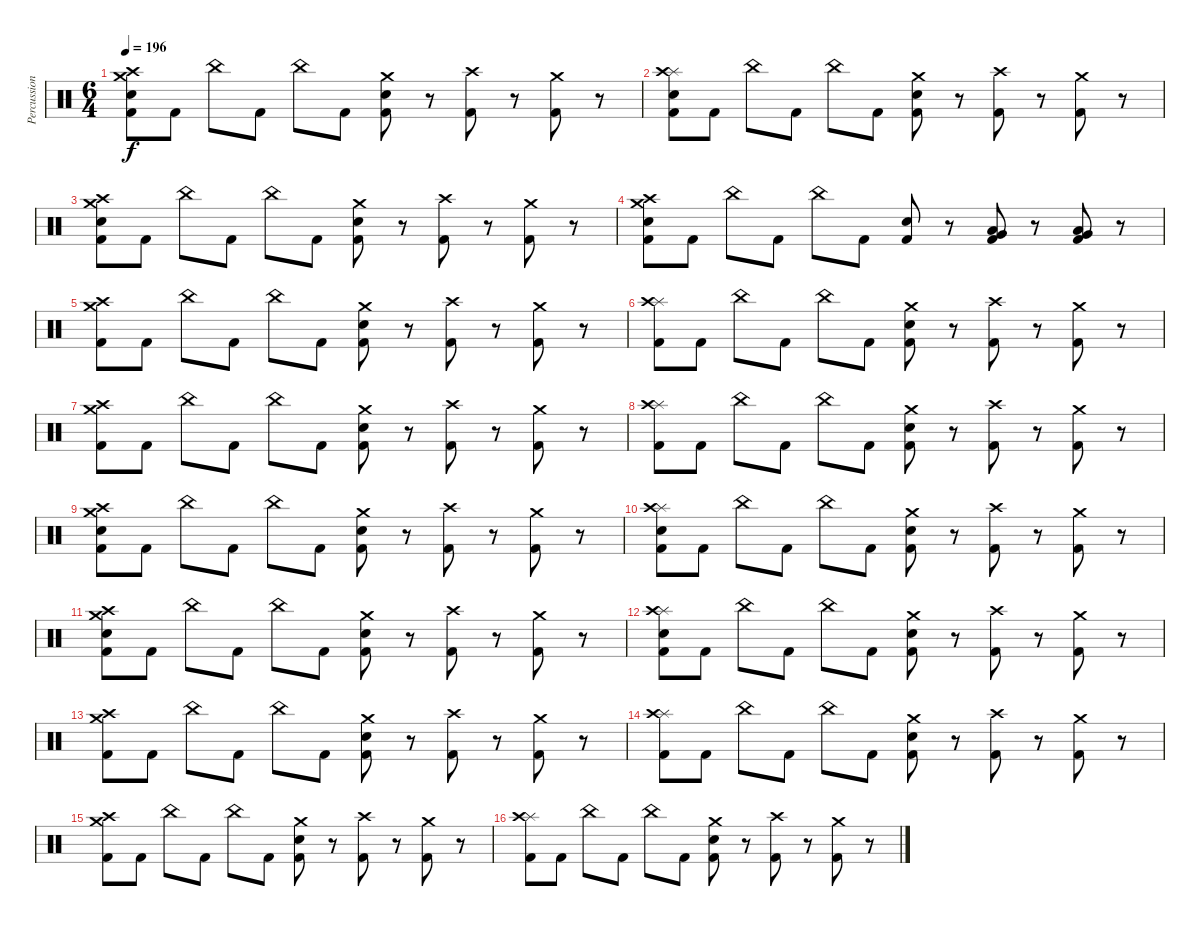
\track ("Percussion" "Percussion") {instrument percussion}
\staff {score}
\articulation defaults
\ts (6 4)
\tempo 196
\clef neutral
\ks c
("Crash medium (hit)" "Crash high (hit)" "Electric Snare (hit)" "Kick (hit) 2").8{dy f} "Kick (hit) 2".8 "China (hit)".8 "Kick (hit) 2".8 "China (hit)".8 "Kick (hit) 2".8 ("Crash medium (hit)" "Electric Snare (hit)" "Kick (hit) 2").8 r.8 ("Crash high (hit)" "Kick (hit) 2").8 r.8 ("Crash medium (hit)" "Kick (hit) 2").8 r.8 |
("Splash (hit)" "Crash high (hit)" "Electric Snare (hit)" "Kick (hit) 2").8 "Kick (hit) 2".8 "China (hit)".8 "Kick (hit) 2".8 "China (hit)".8 "Kick (hit) 2".8 ("Crash medium (hit)" "Electric Snare (hit)" "Kick (hit) 2").8 r.8 ("Crash high (hit)" "Kick (hit) 2").8 r.8 ("Crash medium (hit)" "Kick (hit) 2").8 r.8 |
("Crash medium (hit)" "Crash high (hit)" "Electric Snare (hit)" "Kick (hit) 2").8 "Kick (hit) 2".8 "China (hit)".8 "Kick (hit) 2".8 "China (hit)".8 "Kick (hit) 2".8 ("Crash medium (hit)" "Electric Snare (hit)" "Kick (hit) 2").8 r.8 ("Crash high (hit)" "Kick (hit) 2").8 r.8 ("Crash medium (hit)" "Kick (hit) 2").8 r.8 |
("Crash medium (hit)" "Crash high (hit)" "Electric Snare (hit)" "Kick (hit) 2").8 "Kick (hit) 2".8 "China (hit)".8 "Kick (hit) 2".8 "China (hit)".8 "Kick (hit) 2".8 ("Electric Snare (hit)" "Kick (hit) 2").8 r.8 ("Very Low Tom (hit)" "Low Floor Tom (hit)" "Kick (hit) 2").8 r.8 ("Very Low Tom (hit)" "Low Floor Tom (hit)" "Kick (hit) 2").8 r.8 |
("Crash medium (hit)" "Crash high (hit)" "Kick (hit) 2").8 "Kick (hit) 2".8 "China (hit)".8 "Kick (hit) 2".8 "China (hit)".8 "Kick (hit) 2".8 ("Crash medium (hit)" "Electric Snare (hit)" "Kick (hit) 2").8 r.8 ("Crash high (hit)" "Kick (hit) 2").8 r.8 ("Crash medium (hit)" "Kick (hit) 2").8 r.8 |
("Splash (hit)" "Crash high (hit)" "Kick (hit) 2").8 "Kick (hit) 2".8 "China (hit)".8 "Kick (hit) 2".8 "China (hit)".8 "Kick (hit) 2".8 ("Crash medium (hit)" "Electric Snare (hit)" "Kick (hit) 2").8 r.8 ("Crash high (hit)" "Kick (hit) 2").8 r.8 ("Crash medium (hit)" "Kick (hit) 2").8 r.8 |
("Crash medium (hit)" "Crash high (hit)" "Kick (hit) 2").8 "Kick (hit) 2".8 "China (hit)".8 "Kick (hit) 2".8 "China (hit)".8 "Kick (hit) 2".8 ("Crash medium (hit)" "Electric Snare (hit)" "Kick (hit) 2").8 r.8 ("Crash high (hit)" "Kick (hit) 2").8 r.8 ("Crash medium (hit)" "Kick (hit) 2").8 r.8 |
("Splash (hit)" "Crash high (hit)" "Kick (hit) 2").8 "Kick (hit) 2".8 "China (hit)".8 "Kick (hit) 2".8 "China (hit)".8 "Kick (hit) 2".8 ("Crash medium (hit)" "Electric Snare (hit)" "Kick (hit) 2").8 r.8 ("Crash high (hit)" "Kick (hit) 2").8 r.8 ("Crash medium (hit)" "Kick (hit) 2").8 r.8 |
("Crash medium (hit)" "Crash high (hit)" "Electric Snare (hit)" "Kick (hit) 2").8 "Kick (hit) 2".8 "China (hit)".8 "Kick (hit) 2".8 "China (hit)".8 "Kick (hit) 2".8 ("Crash medium (hit)" "Electric Snare (hit)" "Kick (hit) 2").8 r.8 ("Crash high (hit)" "Kick (hit) 2").8 r.8 ("Crash medium (hit)" "Kick (hit) 2").8 r.8 |
("Splash (hit)" "Crash high (hit)" "Electric Snare (hit)" "Kick (hit) 2").8 "Kick (hit) 2".8 "China (hit)".8 "Kick (hit) 2".8 "China (hit)".8 "Kick (hit) 2".8 ("Crash medium (hit)" "Electric Snare (hit)" "Kick (hit) 2").8 r.8 ("Crash high (hit)" "Kick (hit) 2").8 r.8 ("Crash medium (hit)" "Kick (hit) 2").8 r.8 |
("Crash medium (hit)" "Crash high (hit)" "Electric Snare (hit)" "Kick (hit) 2").8 "Kick (hit) 2".8 "China (hit)".8 "Kick (hit) 2".8 "China (hit)".8 "Kick (hit) 2".8 ("Crash medium (hit)" "Electric Snare (hit)" "Kick (hit) 2").8 r.8 ("Crash high (hit)" "Kick (hit) 2").8 r.8 ("Crash medium (hit)" "Kick (hit) 2").8 r.8 |
("Splash (hit)" "Crash high (hit)" "Electric Snare (hit)" "Kick (hit) 2").8 "Kick (hit) 2".8 "China (hit)".8 "Kick (hit) 2".8 "China (hit)".8 "Kick (hit) 2".8 ("Crash medium (hit)" "Electric Snare (hit)" "Kick (hit) 2").8 r.8 ("Crash high (hit)" "Kick (hit) 2").8 r.8 ("Crash medium (hit)" "Kick (hit) 2").8 r.8 |
("Crash medium (hit)" "Crash high (hit)" "Kick (hit) 2").8 "Kick (hit) 2".8 "China (hit)".8 "Kick (hit) 2".8 "China (hit)".8 "Kick (hit) 2".8 ("Crash medium (hit)" "Electric Snare (hit)" "Kick (hit) 2").8 r.8 ("Crash high (hit)" "Kick (hit) 2").8 r.8 ("Crash medium (hit)" "Kick (hit) 2").8 r.8 |
("Splash (hit)" "Crash high (hit)" "Kick (hit) 2").8 "Kick (hit) 2".8 "China (hit)".8 "Kick (hit) 2".8 "China (hit)".8 "Kick (hit) 2".8 ("Crash medium (hit)" "Electric Snare (hit)" "Kick (hit) 2").8 r.8 ("Crash high (hit)" "Kick (hit) 2").8 r.8 ("Crash medium (hit)" "Kick (hit) 2").8 r.8 |
("Crash medium (hit)" "Crash high (hit)" "Kick (hit) 2").8 "Kick (hit) 2".8 "China (hit)".8 "Kick (hit) 2".8 "China (hit)".8 "Kick (hit) 2".8 ("Crash medium (hit)" "Electric Snare (hit)" "Kick (hit) 2").8 r.8 ("Crash high (hit)" "Kick (hit) 2").8 r.8 ("Crash medium (hit)" "Kick (hit) 2").8 r.8 |
("Splash (hit)" "Crash high (hit)" "Kick (hit) 2").8 "Kick (hit) 2".8 "China (hit)".8 "Kick (hit) 2".8 "China (hit)".8 "Kick (hit) 2".8 ("Crash medium (hit)" "Electric Snare (hit)" "Kick (hit) 2").8 r.8 ("Crash high (hit)" "Kick (hit) 2").8 r.8 ("Crash medium (hit)" "Kick (hit) 2").8 r.8
